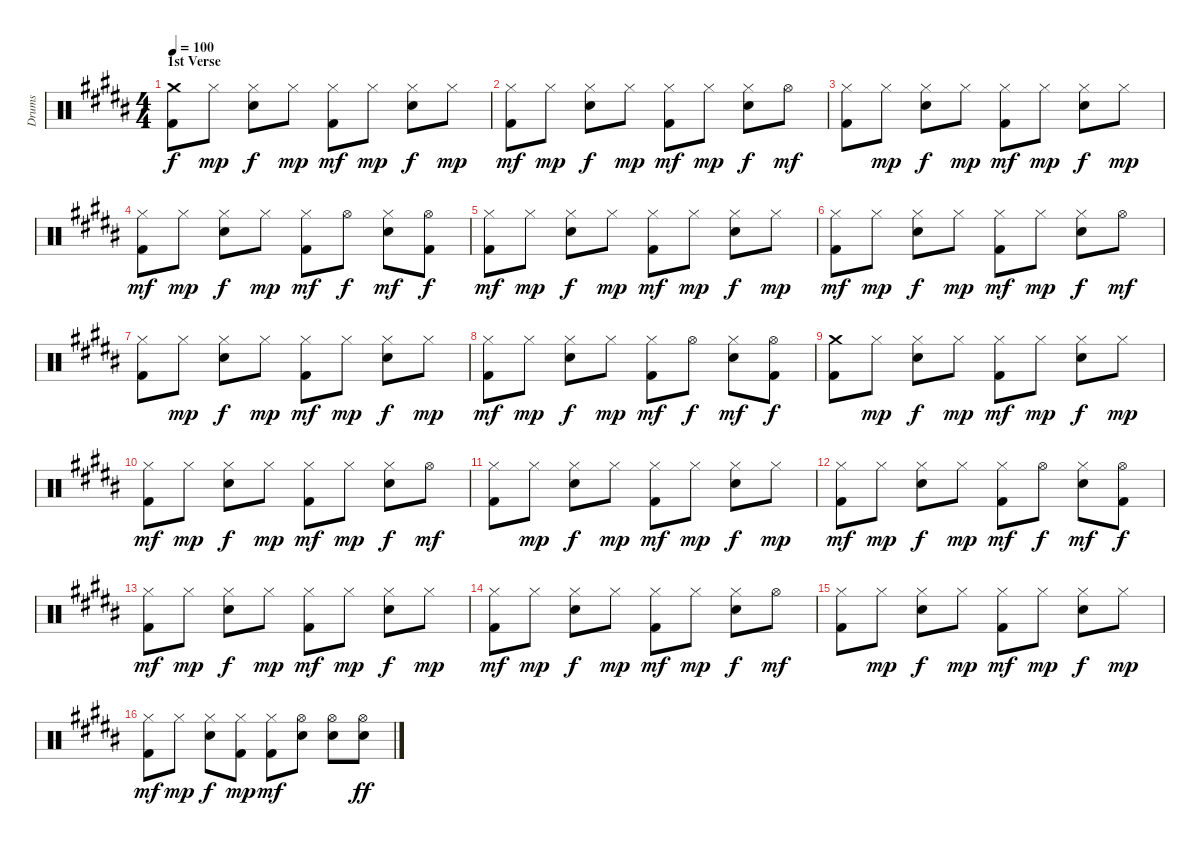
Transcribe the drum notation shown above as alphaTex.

\track ("Drums" "Drums") {instrument percussion}
\staff {score}
\articulation defaults
\ts (4 4)
\section ("" "1st Verse")
\tempo 100
\clef neutral
\ks b
("Crash medium (hit)" "Kick (hit) 2").8{dy f} "Hi-Hat (closed)".8{dy mp} ("Hi-Hat (closed)" "Snare (hit) 2").8{dy f} "Hi-Hat (closed)".8{dy mp} ("Hi-Hat (closed)" "Kick (hit) 2").8{dy mf} "Hi-Hat (closed)".8{dy mp} ("Hi-Hat (closed)" "Snare (hit) 2").8{dy f} "Hi-Hat (closed)".8{dy mp} |
("Hi-Hat (closed)" "Kick (hit) 2").8{dy mf} "Hi-Hat (closed)".8{dy mp} ("Hi-Hat (closed)" "Snare (hit) 2").8{dy f} "Hi-Hat (closed)".8{dy mp} ("Hi-Hat (closed)" "Kick (hit) 2").8{dy mf} "Hi-Hat (closed)".8{dy mp} ("Hi-Hat (closed)" "Snare (hit) 2").8{dy f} "Hi-Hat (open)".8{dy mf} |
("Hi-Hat (closed)" "Kick (hit) 2").8 "Hi-Hat (closed)".8{dy mp} ("Hi-Hat (closed)" "Snare (hit) 2").8{dy f} "Hi-Hat (closed)".8{dy mp} ("Hi-Hat (closed)" "Kick (hit) 2").8{dy mf} "Hi-Hat (closed)".8{dy mp} ("Hi-Hat (closed)" "Snare (hit) 2").8{dy f} "Hi-Hat (closed)".8{dy mp} |
("Hi-Hat (closed)" "Kick (hit) 2").8{dy mf} "Hi-Hat (closed)".8{dy mp} ("Hi-Hat (closed)" "Snare (hit) 2").8{dy f} "Hi-Hat (closed)".8{dy mp} ("Hi-Hat (closed)" "Kick (hit) 2").8{dy mf} "Hi-Hat (open)".8{dy f} ("Hi-Hat (closed)" "Snare (hit) 2").8{dy mf} ("Hi-Hat (open)" "Kick (hit) 2").8{dy f} |
("Hi-Hat (closed)" "Kick (hit) 2").8{dy mf} "Hi-Hat (closed)".8{dy mp} ("Hi-Hat (closed)" "Snare (hit) 2").8{dy f} "Hi-Hat (closed)".8{dy mp} ("Hi-Hat (closed)" "Kick (hit) 2").8{dy mf} "Hi-Hat (closed)".8{dy mp} ("Hi-Hat (closed)" "Snare (hit) 2").8{dy f} "Hi-Hat (closed)".8{dy mp} |
("Hi-Hat (closed)" "Kick (hit) 2").8{dy mf} "Hi-Hat (closed)".8{dy mp} ("Hi-Hat (closed)" "Snare (hit) 2").8{dy f} "Hi-Hat (closed)".8{dy mp} ("Hi-Hat (closed)" "Kick (hit) 2").8{dy mf} "Hi-Hat (closed)".8{dy mp} ("Hi-Hat (closed)" "Snare (hit) 2").8{dy f} "Hi-Hat (open)".8{dy mf} |
("Hi-Hat (closed)" "Kick (hit) 2").8 "Hi-Hat (closed)".8{dy mp} ("Hi-Hat (closed)" "Snare (hit) 2").8{dy f} "Hi-Hat (closed)".8{dy mp} ("Hi-Hat (closed)" "Kick (hit) 2").8{dy mf} "Hi-Hat (closed)".8{dy mp} ("Hi-Hat (closed)" "Snare (hit) 2").8{dy f} "Hi-Hat (closed)".8{dy mp} |
("Hi-Hat (closed)" "Kick (hit) 2").8{dy mf} "Hi-Hat (closed)".8{dy mp} ("Hi-Hat (closed)" "Snare (hit) 2").8{dy f} "Hi-Hat (closed)".8{dy mp} ("Hi-Hat (closed)" "Kick (hit) 2").8{dy mf} "Hi-Hat (open)".8{dy f} ("Hi-Hat (closed)" "Snare (hit) 2").8{dy mf} ("Hi-Hat (open)" "Kick (hit) 2").8{dy f} |
("Crash medium (hit)" "Kick (hit) 2").8 "Hi-Hat (closed)".8{dy mp} ("Hi-Hat (closed)" "Snare (hit) 2").8{dy f} "Hi-Hat (closed)".8{dy mp} ("Hi-Hat (closed)" "Kick (hit) 2").8{dy mf} "Hi-Hat (closed)".8{dy mp} ("Hi-Hat (closed)" "Snare (hit) 2").8{dy f} "Hi-Hat (closed)".8{dy mp} |
("Hi-Hat (closed)" "Kick (hit) 2").8{dy mf} "Hi-Hat (closed)".8{dy mp} ("Hi-Hat (closed)" "Snare (hit) 2").8{dy f} "Hi-Hat (closed)".8{dy mp} ("Hi-Hat (closed)" "Kick (hit) 2").8{dy mf} "Hi-Hat (closed)".8{dy mp} ("Hi-Hat (closed)" "Snare (hit) 2").8{dy f} "Hi-Hat (open)".8{dy mf} |
("Hi-Hat (closed)" "Kick (hit) 2").8 "Hi-Hat (closed)".8{dy mp} ("Hi-Hat (closed)" "Snare (hit) 2").8{dy f} "Hi-Hat (closed)".8{dy mp} ("Hi-Hat (closed)" "Kick (hit) 2").8{dy mf} "Hi-Hat (closed)".8{dy mp} ("Hi-Hat (closed)" "Snare (hit) 2").8{dy f} "Hi-Hat (closed)".8{dy mp} |
("Hi-Hat (closed)" "Kick (hit) 2").8{dy mf} "Hi-Hat (closed)".8{dy mp} ("Hi-Hat (closed)" "Snare (hit) 2").8{dy f} "Hi-Hat (closed)".8{dy mp} ("Hi-Hat (closed)" "Kick (hit) 2").8{dy mf} "Hi-Hat (open)".8{dy f} ("Hi-Hat (closed)" "Snare (hit) 2").8{dy mf} ("Hi-Hat (open)" "Kick (hit) 2").8{dy f} |
("Hi-Hat (closed)" "Kick (hit) 2").8{dy mf} "Hi-Hat (closed)".8{dy mp} ("Hi-Hat (closed)" "Snare (hit) 2").8{dy f} "Hi-Hat (closed)".8{dy mp} ("Hi-Hat (closed)" "Kick (hit) 2").8{dy mf} "Hi-Hat (closed)".8{dy mp} ("Hi-Hat (closed)" "Snare (hit) 2").8{dy f} "Hi-Hat (closed)".8{dy mp} |
("Hi-Hat (closed)" "Kick (hit) 2").8{dy mf} "Hi-Hat (closed)".8{dy mp} ("Hi-Hat (closed)" "Snare (hit) 2").8{dy f} "Hi-Hat (closed)".8{dy mp} ("Hi-Hat (closed)" "Kick (hit) 2").8{dy mf} "Hi-Hat (closed)".8{dy mp} ("Hi-Hat (closed)" "Snare (hit) 2").8{dy f} "Hi-Hat (open)".8{dy mf} |
("Hi-Hat (closed)" "Kick (hit) 2").8 "Hi-Hat (closed)".8{dy mp} ("Hi-Hat (closed)" "Snare (hit) 2").8{dy f} "Hi-Hat (closed)".8{dy mp} ("Hi-Hat (closed)" "Kick (hit) 2").8{dy mf} "Hi-Hat (closed)".8{dy mp} ("Hi-Hat (closed)" "Snare (hit) 2").8{dy f} "Hi-Hat (closed)".8{dy mp} |
("Hi-Hat (closed)" "Kick (hit) 2").8{dy mf} "Hi-Hat (closed)".8{dy mp} ("Hi-Hat (closed)" "Snare (hit) 2").8{dy f} ("Hi-Hat (closed)" "Kick (hit) 2").8{dy mp} ("Hi-Hat (closed)" "Kick (hit) 2").8{dy mf} ("Hi-Hat (open)" "Snare (hit) 2").8 ("Hi-Hat (open)" "Snare (hit) 2").8 ("Hi-Hat (open)" "Snare (hit) 2").8{dy ff}
